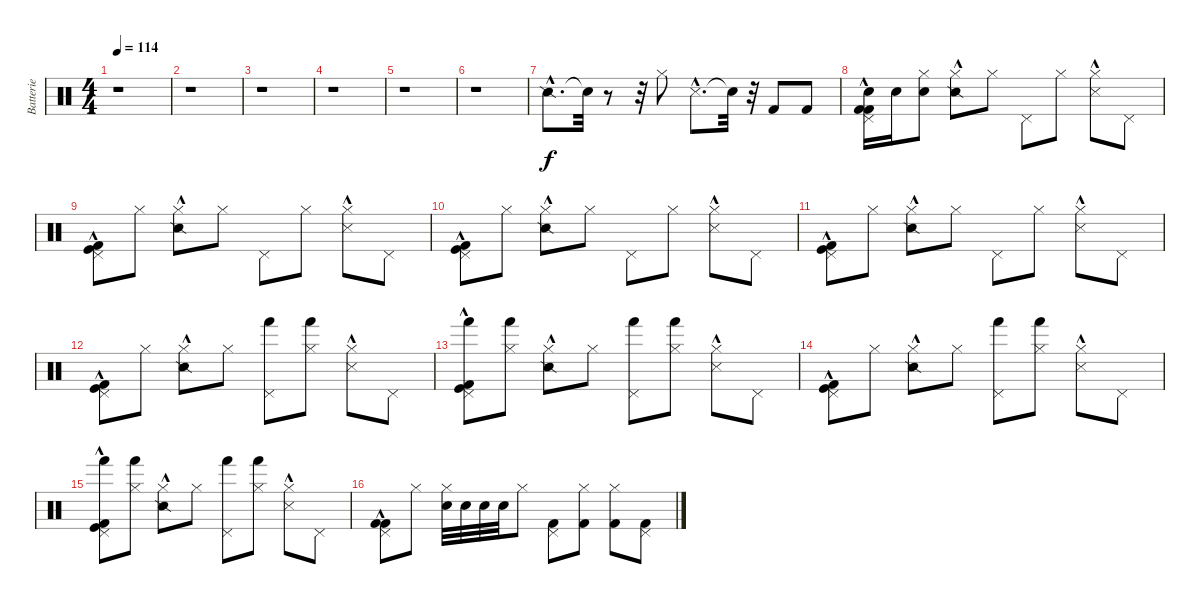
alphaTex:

\track ("Batterie" "Batterie") {instrument percussion}
\staff {score}
\articulation defaults
\ts (4 4)
\tempo 114
\clef neutral
\ks c
r.1{dy f} |
r.1 |
r.1 |
r.1 |
r.1 |
r.1 |
"Snare (side stick) 2"{hac}.8{d} "Snare (hit)"{t}.32 r.8 r.32 "Hi-Hat (closed)".8 "Snare (side stick) 3"{hac}.8{d} "Snare (hit)"{t}.32 r.32 "Kick (hit) 2".8 "Kick (hit) 2".8 |
("Kick (hit) 2"{hac} "Snare (hit) 2" "Kick (hit) 2"{hac} "Pedal Hi-Hat (hit)").16 "Snare (hit) 2".16 ("Electric Snare (hit)" "Hi-Hat (closed)").8 ("Snare (side stick) 2"{hac} "Hi-Hat (closed)").8 "Hi-Hat (closed)".8 "Pedal Hi-Hat (hit)".8 "Hi-Hat (closed)".8 ("Snare (side stick) 3"{hac} "Hi-Hat (closed)").8 "Pedal Hi-Hat (hit)".8 |
("Kick (hit)"{hac} "Kick (hit) 2"{hac} "Pedal Hi-Hat (hit)").8 "Hi-Hat (closed)".8 ("Snare (side stick) 2"{hac} "Hi-Hat (closed)").8 "Hi-Hat (closed)".8 "Pedal Hi-Hat (hit)".8 "Hi-Hat (closed)".8 ("Snare (side stick) 3"{hac} "Hi-Hat (closed)").8 "Pedal Hi-Hat (hit)".8 |
("Kick (hit)"{hac} "Kick (hit) 2"{hac} "Pedal Hi-Hat (hit)").8 "Hi-Hat (closed)".8 ("Snare (side stick) 2"{hac} "Hi-Hat (closed)").8 "Hi-Hat (closed)".8 "Pedal Hi-Hat (hit)".8 "Hi-Hat (closed)".8 ("Snare (side stick) 3"{hac} "Hi-Hat (closed)").8 "Pedal Hi-Hat (hit)".8 |
("Kick (hit)"{hac} "Kick (hit) 2"{hac} "Pedal Hi-Hat (hit)").8 "Hi-Hat (closed)".8 ("Snare (side stick) 2"{hac} "Hi-Hat (closed)").8 "Hi-Hat (closed)".8 "Pedal Hi-Hat (hit)".8 "Hi-Hat (closed)".8 ("Snare (side stick) 3"{hac} "Hi-Hat (closed)").8 "Pedal Hi-Hat (hit)".8 |
("Kick (hit)"{hac} "Kick (hit) 2"{hac} "Pedal Hi-Hat (hit)").8 "Hi-Hat (closed)".8 ("Snare (side stick) 2"{hac} "Hi-Hat (closed)").8 "Hi-Hat (closed)".8 ("Pedal Hi-Hat (hit)" "Hand (hit)").8 ("Hi-Hat (closed)" "Hand (hit)").8 ("Snare (side stick) 3"{hac} "Hi-Hat (closed)").8 "Pedal Hi-Hat (hit)".8 |
("Kick (hit)"{hac} "Kick (hit) 2"{hac} "Pedal Hi-Hat (hit)" "Hand (hit)").8 ("Hi-Hat (closed)" "Hand (hit)").8 ("Snare (side stick) 2"{hac} "Hi-Hat (closed)").8 "Hi-Hat (closed)".8 ("Pedal Hi-Hat (hit)" "Hand (hit)").8 ("Hi-Hat (closed)" "Hand (hit)").8 ("Snare (side stick) 3"{hac} "Hi-Hat (closed)").8 "Pedal Hi-Hat (hit)".8 |
("Kick (hit)"{hac} "Kick (hit) 2"{hac} "Pedal Hi-Hat (hit)").8 "Hi-Hat (closed)".8 ("Snare (side stick) 2"{hac} "Hi-Hat (closed)").8 "Hi-Hat (closed)".8 ("Pedal Hi-Hat (hit)" "Hand (hit)").8 ("Hi-Hat (closed)" "Hand (hit)").8 ("Snare (side stick) 3"{hac} "Hi-Hat (closed)").8 "Pedal Hi-Hat (hit)".8 |
("Kick (hit)"{hac} "Kick (hit) 2"{hac} "Pedal Hi-Hat (hit)" "Hand (hit)").8 ("Hi-Hat (closed)" "Hand (hit)").8 ("Snare (side stick) 2"{hac} "Hi-Hat (closed)").8 "Hi-Hat (closed)".8 ("Pedal Hi-Hat (hit)" "Hand (hit)").8 ("Hi-Hat (closed)" "Hand (hit)").8 ("Snare (side stick) 3"{hac} "Hi-Hat (closed)").8 "Pedal Hi-Hat (hit)".8 |
("Kick (hit) 2"{hac} "Kick (hit) 2"{hac} "Pedal Hi-Hat (hit)").8 "Hi-Hat (closed)".8 ("Snare (hit) 2" "Hi-Hat (closed)").32 "Electric Snare (hit)".32 "Snare (hit) 2".32 "Electric Snare (hit)".32 "Hi-Hat (closed)".8 ("Kick (hit) 2" "Pedal Hi-Hat (hit)").8 ("Kick (hit) 2" "Hi-Hat (closed)").8 ("Kick (hit) 2" "Hi-Hat (closed)").8 ("Kick (hit) 2" "Pedal Hi-Hat (hit)").8
